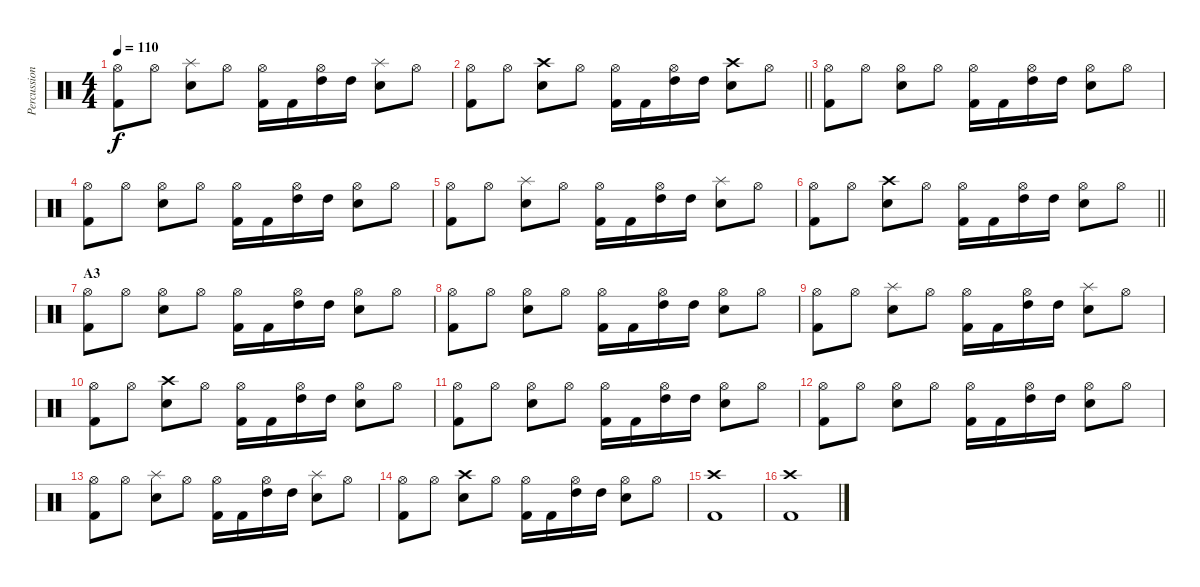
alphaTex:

\track ("Percussion" "Percussion") {instrument percussion}
\staff {score}
\articulation defaults
\ts (4 4)
\tempo 110
\clef neutral
\ks c
("Hi-Hat (open)" "Kick (hit) 2").8{dy f} "Hi-Hat (open)".8 ("Splash (hit)" "Snare (hit) 2").8 "Hi-Hat (open)".8 ("Hi-Hat (open)" "Kick (hit) 2").16 "Kick (hit) 2".16 ("Hi-Hat (open)" "High Tom (hit)").16 "High Tom (hit)".16 ("Splash (hit)" "Snare (hit) 2").8 "Hi-Hat (open)".8 |
\barLineRight lightlight
("Hi-Hat (open)" "Kick (hit) 2").8 "Hi-Hat (open)".8 ("Crash high (hit)" "Snare (hit) 2").8 "Hi-Hat (open)".8 ("Hi-Hat (open)" "Kick (hit) 2").16 "Kick (hit) 2".16 ("Hi-Hat (open)" "High Tom (hit)").16 "High Tom (hit)".16 ("Crash high (hit)" "Snare (hit) 2").8 "Hi-Hat (open)".8 |
("Hi-Hat (open)" "Kick (hit) 2").8 "Hi-Hat (open)".8 ("Hi-Hat (open)" "Snare (hit) 2").8 "Hi-Hat (open)".8 ("Hi-Hat (open)" "Kick (hit) 2").16 "Kick (hit) 2".16 ("Hi-Hat (open)" "High Tom (hit)").16 "High Tom (hit)".16 ("Hi-Hat (open)" "Snare (hit) 2").8 "Hi-Hat (open)".8 |
("Hi-Hat (open)" "Kick (hit) 2").8 "Hi-Hat (open)".8 ("Hi-Hat (open)" "Snare (hit) 2").8 "Hi-Hat (open)".8 ("Hi-Hat (open)" "Kick (hit) 2").16 "Kick (hit) 2".16 ("Hi-Hat (open)" "High Tom (hit)").16 "High Tom (hit)".16 ("Hi-Hat (open)" "Snare (hit) 2").8 "Hi-Hat (open)".8 |
("Hi-Hat (open)" "Kick (hit) 2").8 "Hi-Hat (open)".8 ("Splash (hit)" "Snare (hit) 2").8 "Hi-Hat (open)".8 ("Hi-Hat (open)" "Kick (hit) 2").16 "Kick (hit) 2".16 ("Hi-Hat (open)" "High Tom (hit)").16 "High Tom (hit)".16 ("Splash (hit)" "Snare (hit) 2").8 "Hi-Hat (open)".8 |
\barLineRight lightlight
("Hi-Hat (open)" "Kick (hit) 2").8 "Hi-Hat (open)".8 ("Crash high (hit)" "Snare (hit) 2").8 "Hi-Hat (open)".8 ("Hi-Hat (open)" "Kick (hit) 2").16 "Kick (hit) 2".16 ("Hi-Hat (open)" "High Tom (hit)").16 "High Tom (hit)".16 ("Hi-Hat (open)" "Snare (hit) 2").8 "Hi-Hat (open)".8 |
\section ("" "A3")
("Hi-Hat (open)" "Kick (hit) 2").8 "Hi-Hat (open)".8 ("Hi-Hat (open)" "Snare (hit) 2").8 "Hi-Hat (open)".8 ("Hi-Hat (open)" "Kick (hit) 2").16 "Kick (hit) 2".16 ("Hi-Hat (open)" "High Tom (hit)").16 "High Tom (hit)".16 ("Hi-Hat (open)" "Snare (hit) 2").8 "Hi-Hat (open)".8 |
("Hi-Hat (open)" "Kick (hit) 2").8 "Hi-Hat (open)".8 ("Hi-Hat (open)" "Snare (hit) 2").8 "Hi-Hat (open)".8 ("Hi-Hat (open)" "Kick (hit) 2").16 "Kick (hit) 2".16 ("Hi-Hat (open)" "High Tom (hit)").16 "High Tom (hit)".16 ("Hi-Hat (open)" "Snare (hit) 2").8 "Hi-Hat (open)".8 |
("Hi-Hat (open)" "Kick (hit) 2").8 "Hi-Hat (open)".8 ("Splash (hit)" "Snare (hit) 2").8 "Hi-Hat (open)".8 ("Hi-Hat (open)" "Kick (hit) 2").16 "Kick (hit) 2".16 ("Hi-Hat (open)" "High Tom (hit)").16 "High Tom (hit)".16 ("Splash (hit)" "Snare (hit) 2").8 "Hi-Hat (open)".8 |
("Hi-Hat (open)" "Kick (hit) 2").8 "Hi-Hat (open)".8 ("Crash high (hit)" "Snare (hit) 2").8 "Hi-Hat (open)".8 ("Hi-Hat (open)" "Kick (hit) 2").16 "Kick (hit) 2".16 ("Hi-Hat (open)" "High Tom (hit)").16 "High Tom (hit)".16 ("Hi-Hat (open)" "Snare (hit) 2").8 "Hi-Hat (open)".8 |
("Hi-Hat (open)" "Kick (hit) 2").8 "Hi-Hat (open)".8 ("Hi-Hat (open)" "Snare (hit) 2").8 "Hi-Hat (open)".8 ("Hi-Hat (open)" "Kick (hit) 2").16 "Kick (hit) 2".16 ("Hi-Hat (open)" "High Tom (hit)").16 "High Tom (hit)".16 ("Hi-Hat (open)" "Snare (hit) 2").8 "Hi-Hat (open)".8 |
("Hi-Hat (open)" "Kick (hit) 2").8 "Hi-Hat (open)".8 ("Hi-Hat (open)" "Snare (hit) 2").8 "Hi-Hat (open)".8 ("Hi-Hat (open)" "Kick (hit) 2").16 "Kick (hit) 2".16 ("Hi-Hat (open)" "High Tom (hit)").16 "High Tom (hit)".16 ("Hi-Hat (open)" "Snare (hit) 2").8 "Hi-Hat (open)".8 |
("Hi-Hat (open)" "Kick (hit) 2").8 "Hi-Hat (open)".8 ("Splash (hit)" "Snare (hit) 2").8 "Hi-Hat (open)".8 ("Hi-Hat (open)" "Kick (hit) 2").16 "Kick (hit) 2".16 ("Hi-Hat (open)" "High Tom (hit)").16 "High Tom (hit)".16 ("Splash (hit)" "Snare (hit) 2").8 "Hi-Hat (open)".8 |
("Hi-Hat (open)" "Kick (hit) 2").8 "Hi-Hat (open)".8 ("Crash high (hit)" "Snare (hit) 2").8 "Hi-Hat (open)".8 ("Hi-Hat (open)" "Kick (hit) 2").16 "Kick (hit) 2".16 ("Hi-Hat (open)" "High Tom (hit)").16 "High Tom (hit)".16 ("Hi-Hat (open)" "Snare (hit) 2").8 "Hi-Hat (open)".8 |
("Crash high (hit)" "Kick (hit) 2").1 |
("Crash high (hit)" "Kick (hit) 2").1
